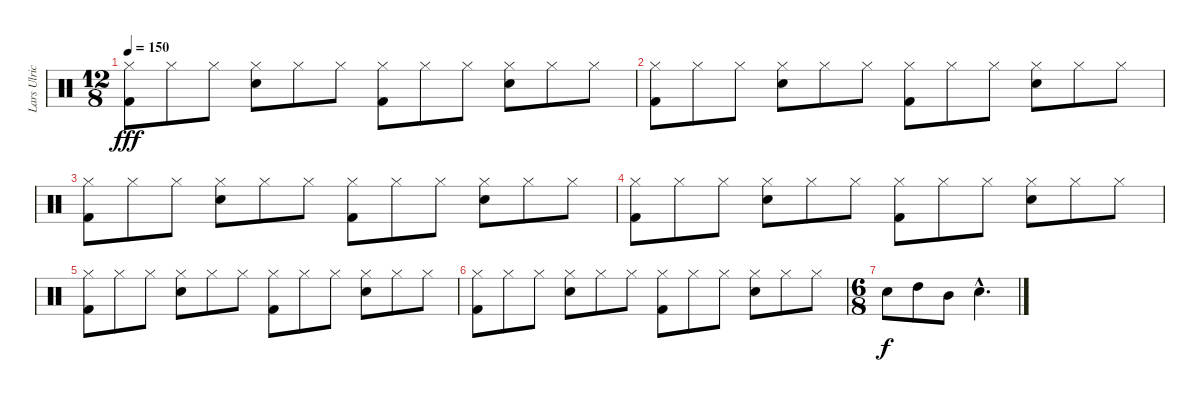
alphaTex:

\track ("Lars Ulrich (Drums)" "Lars Ulric") {instrument percussion}
\staff {score}
\articulation defaults
\ts (12 8)
\tempo 150
\clef neutral
\ks c
("Hi-Hat (closed)" "Kick (hit) 2").8{dy fff} "Hi-Hat (closed)".8 "Hi-Hat (closed)".8 ("Hi-Hat (closed)" "Electric Snare (hit)").8 "Hi-Hat (closed)".8 "Hi-Hat (closed)".8 ("Hi-Hat (closed)" "Kick (hit) 2").8 "Hi-Hat (closed)".8 "Hi-Hat (closed)".8 ("Hi-Hat (closed)" "Electric Snare (hit)").8 "Hi-Hat (closed)".8 "Hi-Hat (closed)".8 |
("Hi-Hat (closed)" "Kick (hit) 2").8 "Hi-Hat (closed)".8 "Hi-Hat (closed)".8 ("Hi-Hat (closed)" "Electric Snare (hit)").8 "Hi-Hat (closed)".8 "Hi-Hat (closed)".8 ("Hi-Hat (closed)" "Kick (hit) 2").8 "Hi-Hat (closed)".8 "Hi-Hat (closed)".8 ("Hi-Hat (closed)" "Electric Snare (hit)").8 "Hi-Hat (closed)".8 "Hi-Hat (closed)".8 |
("Hi-Hat (closed)" "Kick (hit) 2").8 "Hi-Hat (closed)".8 "Hi-Hat (closed)".8 ("Hi-Hat (closed)" "Electric Snare (hit)").8 "Hi-Hat (closed)".8 "Hi-Hat (closed)".8 ("Hi-Hat (closed)" "Kick (hit) 2").8 "Hi-Hat (closed)".8 "Hi-Hat (closed)".8 ("Hi-Hat (closed)" "Electric Snare (hit)").8 "Hi-Hat (closed)".8 "Hi-Hat (closed)".8 |
("Hi-Hat (closed)" "Kick (hit) 2").8 "Hi-Hat (closed)".8 "Hi-Hat (closed)".8 ("Hi-Hat (closed)" "Electric Snare (hit)").8 "Hi-Hat (closed)".8 "Hi-Hat (closed)".8 ("Hi-Hat (closed)" "Kick (hit) 2").8 "Hi-Hat (closed)".8 "Hi-Hat (closed)".8 ("Hi-Hat (closed)" "Electric Snare (hit)").8 "Hi-Hat (closed)".8 "Hi-Hat (closed)".8 |
("Hi-Hat (closed)" "Kick (hit) 2").8 "Hi-Hat (closed)".8 "Hi-Hat (closed)".8 ("Hi-Hat (closed)" "Electric Snare (hit)").8 "Hi-Hat (closed)".8 "Hi-Hat (closed)".8 ("Hi-Hat (closed)" "Kick (hit) 2").8 "Hi-Hat (closed)".8 "Hi-Hat (closed)".8 ("Hi-Hat (closed)" "Electric Snare (hit)").8 "Hi-Hat (closed)".8 "Hi-Hat (closed)".8 |
("Hi-Hat (closed)" "Kick (hit) 2").8 "Hi-Hat (closed)".8 "Hi-Hat (closed)".8 ("Hi-Hat (closed)" "Electric Snare (hit)").8 "Hi-Hat (closed)".8 "Hi-Hat (closed)".8 ("Hi-Hat (closed)" "Kick (hit) 2").8 "Hi-Hat (closed)".8 "Hi-Hat (closed)".8 ("Hi-Hat (closed)" "Electric Snare (hit)").8 "Hi-Hat (closed)".8 "Hi-Hat (closed)".8 |
\ts (6 8)
"Electric Snare (hit)".8{dy f} "High Tom (hit)".8 "Mid Tom (hit)".8 "Electric Snare (hit)"{hac}.4{d}
